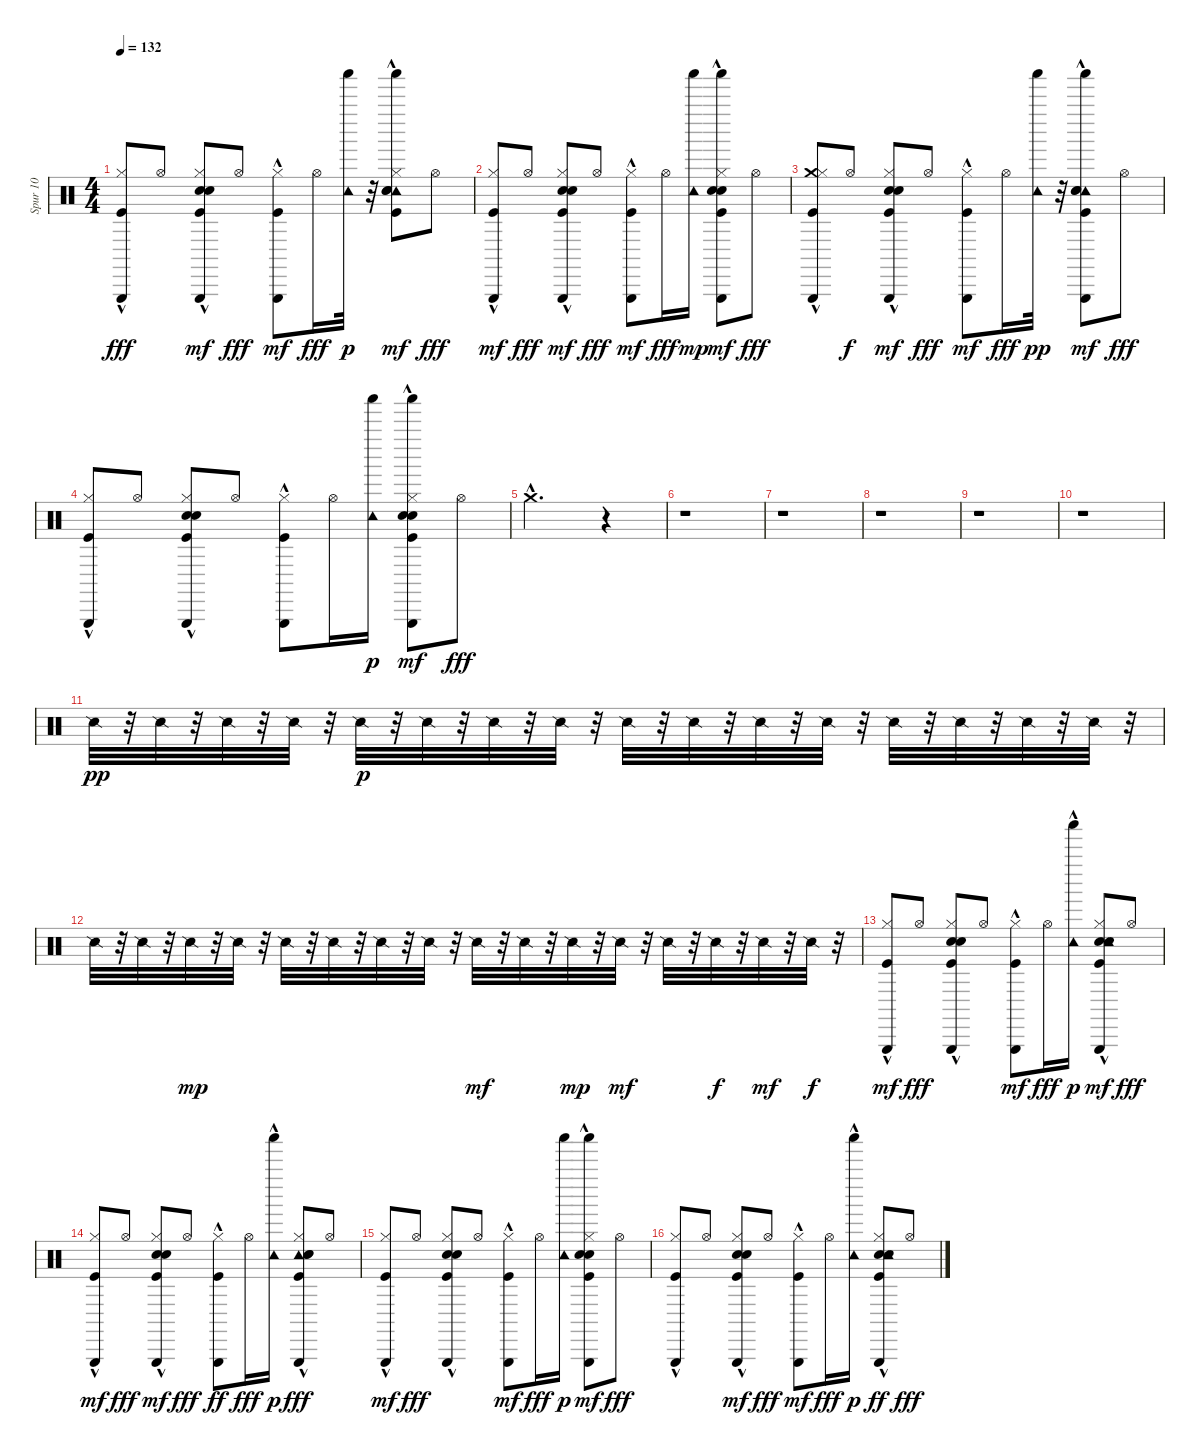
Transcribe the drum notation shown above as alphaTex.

\track ("Spur 10" "Spur 10") {instrument percussion}
\staff {score}
\articulation defaults
\ts (4 4)
\tempo 132
\clef neutral
\ks c
("Triangle (hit)"{hac} "Kick (hit)"{hac} "Hi-Hat (closed)").8{dy fff} "Hi-Hat (open)".8 ("Kick (hit)"{hac} "Hand Clap (hit)"{hac} "Snare (hit) 2"{hac} "Hi-Hat (closed)" "Triangle (hit)"{hac}).8{dy mf} "Hi-Hat (open)".8{dy fff} ("Hi-Hat (closed)" "Kick (hit)"{hac} "Triangle (hit)"{hac}).8{dy mf} "Hi-Hat (open)".16{dy fff} ("Tambourine (hit)" "Shaker (hit)").32{dy p} r.32 ("Shaker (hit)" "Tambourine (hit)"{hac} "Hi-Hat (closed)" "Kick (hit)"{hac} "Hand Clap (hit)"{hac} "Snare (hit) 2"{hac}).8{dy mf} "Hi-Hat (open)".8{dy fff} |
("Hi-Hat (closed)" "Kick (hit)"{hac} "Triangle (hit)"{hac}).8{dy mf} "Hi-Hat (open)".8{dy fff} ("Hi-Hat (closed)" "Kick (hit)"{hac} "Snare (hit) 2"{hac} "Hand Clap (hit)"{hac} "Triangle (hit)"{hac}).8{dy mf} "Hi-Hat (open)".8{dy fff} ("Kick (hit)"{hac} "Hi-Hat (closed)" "Triangle (hit)"{hac}).8{dy mf} "Hi-Hat (open)".16{dy fff} ("Shaker (hit)" "Tambourine (hit)").16{dy mp} ("Shaker (hit)"{hac} "Triangle (hit)"{hac} "Hi-Hat (closed)" "Kick (hit)" "Hand Clap (hit)"{hac} "Snare (hit) 2"{hac}).8{dy mf} "Hi-Hat (open)".8{dy fff} |
("Crash medium (hit)" "Triangle (hit)"{hac} "Hi-Hat (closed)" "Kick (hit)").8 "Hi-Hat (open)".8{dy f} ("Snare (hit) 2"{hac} "Hand Clap (hit)"{hac} "Kick (hit)"{hac} "Hi-Hat (closed)" "Triangle (hit)").8{dy mf} "Hi-Hat (open)".8{dy fff} ("Kick (hit)"{hac} "Hi-Hat (closed)"{hac} "Triangle (hit)"{hac}).8{dy mf} "Hi-Hat (open)".16{dy fff} ("Tambourine (hit)" "Shaker (hit)").32{dy pp} r.32 ("Shaker (hit)" "Tambourine (hit)"{hac} "Triangle (hit)" "Kick (hit)"{hac} "Hand Clap (hit)"{hac} "Snare (hit) 2"{hac}).8{dy mf} "Hi-Hat (open)".8{dy fff} |
("Triangle (hit)"{hac} "Hi-Hat (closed)" "Kick (hit)"{hac}).8 "Hi-Hat (open)".8 ("Triangle (hit)" "Hi-Hat (closed)" "Hand Clap (hit)"{hac} "Snare (hit) 2"{hac} "Kick (hit)"{hac}).8 "Hi-Hat (open)".8 ("Triangle (hit)"{hac} "Hi-Hat (closed)" "Kick (hit)"{hac}).8 "Hi-Hat (open)".16 ("Tambourine (hit)" "Shaker (hit)").16{dy p} ("Shaker (hit)" "Triangle (hit)"{hac} "Hi-Hat (closed)" "Kick (hit)"{hac} "Hand Clap (hit)" "Snare (hit) 2").8{dy mf} "Hi-Hat (open)".8{dy fff} |
"Crash medium (hit)"{hac}.2{d} r.4 |
r.1 |
r.1 |
r.1 |
r.1 |
r.1 |
"Snare (side stick) 2".32{dy pp} r.32 "Snare (side stick) 2".32 r.32 "Snare (side stick) 2".32 r.32 "Snare (side stick) 2".32 r.32 "Snare (side stick) 2".32{dy p} r.32 "Snare (side stick) 2".32 r.32 "Snare (side stick) 2".32 r.32 "Snare (side stick) 2".32 r.32 "Snare (side stick) 2".32 r.32 "Snare (side stick) 2".32 r.32 "Snare (side stick) 2".32 r.32 "Snare (side stick) 2".32 r.32 "Snare (side stick) 2".32 r.32 "Snare (side stick) 2".32 r.32 "Snare (side stick) 2".32 r.32 "Snare (side stick) 2".32 r.32 |
"Snare (side stick) 2".32 r.32 "Snare (side stick) 2".32 r.32 "Snare (side stick) 2".32{dy mp} r.32 "Snare (side stick) 2".32 r.32 "Snare (side stick) 2".32 r.32 "Snare (side stick) 2".32 r.32 "Snare (side stick) 2".32 r.32 "Snare (side stick) 2".32 r.32 "Snare (side stick) 2".32{dy mf} r.32 "Snare (side stick) 2".32 r.32 "Snare (side stick) 2".32{dy mp} r.32 "Snare (side stick) 2".32{dy mf} r.32 "Snare (side stick) 2".32 r.32 "Snare (side stick) 2".32{dy f} r.32 "Snare (side stick) 2".32{dy mf} r.32 "Snare (side stick) 2".32{dy f} r.32 |
("Kick (hit)"{hac} "Hi-Hat (closed)" "Triangle (hit)"{hac}).8{dy mf} "Hi-Hat (open)".8{dy fff} ("Triangle (hit)"{hac} "Kick (hit)"{hac} "Hand Clap (hit)"{hac} "Snare (hit) 2"{hac} "Hi-Hat (closed)").8 "Hi-Hat (open)".8 ("Kick (hit)"{hac} "Hi-Hat (closed)" "Triangle (hit)"{hac}).8{dy mf} "Hi-Hat (open)".16{dy fff} ("Tambourine (hit)" "Shaker (hit)"{hac}).16{dy p} ("Kick (hit)"{hac} "Snare (hit) 2"{hac} "Hand Clap (hit)"{hac} "Hi-Hat (closed)" "Triangle (hit)"{hac} "Tambourine (hit)"{hac}).8{dy mf} "Hi-Hat (open)".8{dy fff} |
("Kick (hit)"{hac} "Hi-Hat (closed)" "Triangle (hit)"{hac}).8{dy mf} "Hi-Hat (open)".8{dy fff} ("Triangle (hit)"{hac} "Hi-Hat (closed)" "Kick (hit)"{hac} "Hand Clap (hit)"{hac} "Snare (hit) 2"{hac}).8{dy mf} "Hi-Hat (open)".8{dy fff} ("Triangle (hit)"{hac} "Kick (hit)"{hac} "Hi-Hat (closed)").8{dy ff} "Hi-Hat (open)".16{dy fff} ("Tambourine (hit)" "Shaker (hit)"{hac}).16{dy p} ("Tambourine (hit)"{hac} "Triangle (hit)"{hac} "Kick (hit)"{hac} "Snare (hit) 2"{hac} "Hand Clap (hit)"{hac} "Hi-Hat (closed)").8{dy fff} "Hi-Hat (open)".8 |
("Kick (hit)"{hac} "Hi-Hat (closed)" "Triangle (hit)"{hac}).8{dy mf} "Hi-Hat (open)".8{dy fff} ("Triangle (hit)"{hac} "Hi-Hat (closed)" "Hand Clap (hit)"{hac} "Snare (hit) 2"{hac} "Kick (hit)"{hac}).8 "Hi-Hat (open)".8 ("Hi-Hat (closed)" "Kick (hit)"{hac} "Triangle (hit)"{hac}).8{dy mf} "Hi-Hat (open)".16{dy fff} ("Shaker (hit)" "Tambourine (hit)").16{dy p} ("Shaker (hit)" "Triangle (hit)"{hac} "Hi-Hat (closed)" "Kick (hit)"{hac} "Hand Clap (hit)"{hac} "Snare (hit) 2"{hac}).8{dy mf} "Hi-Hat (open)".8{dy fff} |
("Triangle (hit)"{hac} "Hi-Hat (closed)" "Kick (hit)"{hac}).8 "Hi-Hat (open)".8 ("Hi-Hat (closed)" "Kick (hit)"{hac} "Snare (hit) 2"{hac} "Hand Clap (hit)"{hac} "Triangle (hit)"{hac}).8{dy mf} "Hi-Hat (open)".8{dy fff} ("Kick (hit)"{hac} "Hi-Hat (closed)" "Triangle (hit)"{hac}).8{dy mf} "Hi-Hat (open)".16{dy fff} ("Tambourine (hit)" "Shaker (hit)"{hac}).16{dy p} ("Triangle (hit)"{hac} "Hi-Hat (closed)" "Hand Clap (hit)"{hac} "Snare (hit) 2"{hac} "Kick (hit)"{hac} "Tambourine (hit)").8{dy ff} "Hi-Hat (open)".8{dy fff}
